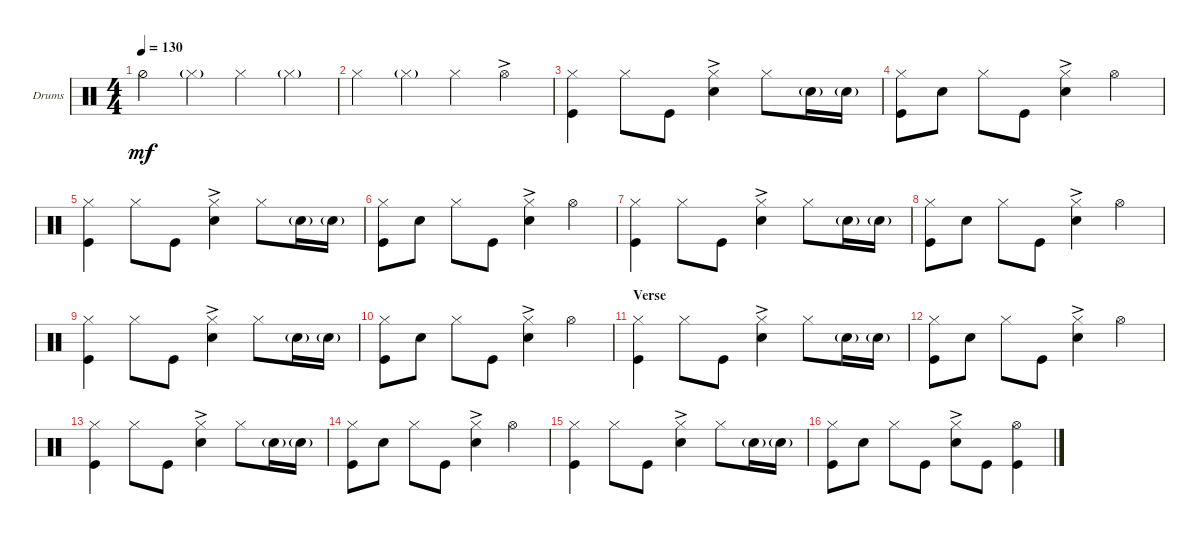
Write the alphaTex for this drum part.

\bracketExtendMode groupsimilarinstruments
\firstSystemTrackNameOrientation horizontal
\otherSystemsTrackNameOrientation horizontal
\track ("Drumkit" "Drums") {instrument percussion}
\staff {score}
\articulation defaults
\ts (4 4)
\tempo 130
\clef neutral
\ks c "Hi-Hat (half)".4{dy mf} "Hi-Hat (closed)"{g}.4 "Hi-Hat (closed)".4 "Hi-Hat (closed)"{g}.4
|
"Hi-Hat (closed)".4 "Hi-Hat (closed)"{g}.4 "Hi-Hat (closed)".4 "Hi-Hat (open)"{ac}.4 |
("Hi-Hat (closed)" "Kick (hit)").4 "Hi-Hat (closed)".8 "Kick (hit)".8 ("Snare (hit) 2"{ac} "Hi-Hat (closed)").4 "Hi-Hat (closed)".8 "Snare (hit) 2"{g}.16 "Snare (hit) 2"{g}.16 |
("Kick (hit)" "Hi-Hat (closed)").8 "Snare (hit) 2".8 "Hi-Hat (closed)".8 "Kick (hit)".8 ("Snare (hit) 2"{ac} "Hi-Hat (closed)").4 "Hi-Hat (open)".4 |
("Hi-Hat (closed)" "Kick (hit)").4 "Hi-Hat (closed)".8 "Kick (hit)".8 ("Snare (hit) 2"{ac} "Hi-Hat (closed)").4 "Hi-Hat (closed)".8 "Snare (hit) 2"{g}.16 "Snare (hit) 2"{g}.16 |
("Kick (hit)" "Hi-Hat (closed)").8 "Snare (hit) 2".8 "Hi-Hat (closed)".8 "Kick (hit)".8 ("Snare (hit) 2"{ac} "Hi-Hat (closed)").4 "Hi-Hat (open)".4 |
("Hi-Hat (closed)" "Kick (hit)").4 "Hi-Hat (closed)".8 "Kick (hit)".8 ("Snare (hit) 2"{ac} "Hi-Hat (closed)").4 "Hi-Hat (closed)".8 "Snare (hit) 2"{g}.16 "Snare (hit) 2"{g}.16 |
("Kick (hit)" "Hi-Hat (closed)").8 "Snare (hit) 2".8 "Hi-Hat (closed)".8 "Kick (hit)".8 ("Snare (hit) 2"{ac} "Hi-Hat (closed)").4 "Hi-Hat (open)".4 |
("Hi-Hat (closed)" "Kick (hit)").4 "Hi-Hat (closed)".8 "Kick (hit)".8 ("Snare (hit) 2"{ac} "Hi-Hat (closed)").4 "Hi-Hat (closed)".8 "Snare (hit) 2"{g}.16 "Snare (hit) 2"{g}.16 |
("Kick (hit)" "Hi-Hat (closed)").8 "Snare (hit) 2".8 "Hi-Hat (closed)".8 "Kick (hit)".8 ("Snare (hit) 2"{ac} "Hi-Hat (closed)").4 "Hi-Hat (open)".4 |
\section ("" "Verse")
("Hi-Hat (closed)" "Kick (hit)").4 "Hi-Hat (closed)".8 "Kick (hit)".8 ("Snare (hit) 2"{ac} "Hi-Hat (closed)").4 "Hi-Hat (closed)".8 "Snare (hit) 2"{g}.16 "Snare (hit) 2"{g}.16 |
("Kick (hit)" "Hi-Hat (closed)").8 "Snare (hit) 2".8 "Hi-Hat (closed)".8 "Kick (hit)".8 ("Snare (hit) 2"{ac} "Hi-Hat (closed)").4 "Hi-Hat (open)".4 |
("Hi-Hat (closed)" "Kick (hit)").4 "Hi-Hat (closed)".8 "Kick (hit)".8 ("Snare (hit) 2"{ac} "Hi-Hat (closed)").4 "Hi-Hat (closed)".8 "Snare (hit) 2"{g}.16 "Snare (hit) 2"{g}.16 |
("Kick (hit)" "Hi-Hat (closed)").8 "Snare (hit) 2".8 "Hi-Hat (closed)".8 "Kick (hit)".8 ("Snare (hit) 2"{ac} "Hi-Hat (closed)").4 "Hi-Hat (open)".4 |
("Hi-Hat (closed)" "Kick (hit)").4 "Hi-Hat (closed)".8 "Kick (hit)".8 ("Snare (hit) 2"{ac} "Hi-Hat (closed)").4 "Hi-Hat (closed)".8 "Snare (hit) 2"{g}.16 "Snare (hit) 2"{g}.16 |
("Kick (hit)" "Hi-Hat (closed)").8 "Snare (hit) 2".8 "Hi-Hat (closed)".8 "Kick (hit)".8 ("Snare (hit) 2"{ac} "Hi-Hat (closed)").8 "Kick (hit)".8 ("Hi-Hat (open)" "Kick (hit)").4
